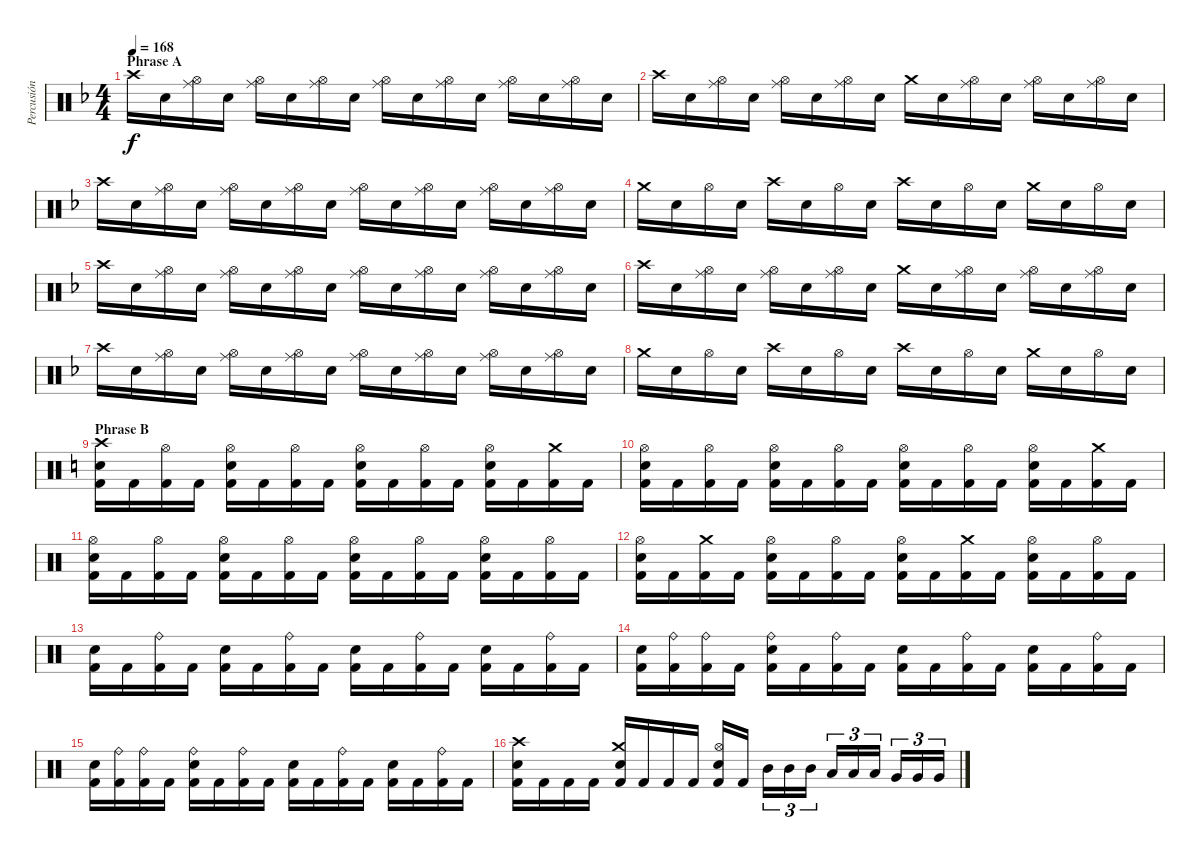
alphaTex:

\track ("Percusión" "Percusión") {instrument percussion}
\staff {score}
\articulation defaults
\ts (4 4)
\section ("" "Phrase A")
\tempo 168
\clef neutral
\ks f "Crash high (hit)".16{dy f} "Electric Snare (hit)".16
("Ride (middle)" "Hi-Hat (open)").16 "Electric Snare (hit)".16 ("Ride (middle)" "Hi-Hat (open)").16 "Electric Snare (hit)".16 ("Ride (middle)" "Hi-Hat (open)").16 "Electric Snare (hit)".16 ("Ride (middle)" "Hi-Hat (open)").16 "Electric Snare (hit)".16 ("Ride (middle)" "Hi-Hat (open)").16 "Electric Snare (hit)".16 ("Ride (middle)" "Hi-Hat (open)").16 "Electric Snare (hit)".16 ("Ride (middle)" "Hi-Hat (open)").16 "Electric Snare (hit)".16 |
"Crash high (hit)".16 "Electric Snare (hit)".16 ("Ride (middle)" "Hi-Hat (open)").16 "Electric Snare (hit)".16 ("Ride (middle)" "Hi-Hat (open)").16 "Electric Snare (hit)".16 ("Ride (middle)" "Hi-Hat (open)").16 "Electric Snare (hit)".16 "Crash medium (hit)".16 "Electric Snare (hit)".16 ("Ride (middle)" "Hi-Hat (open)").16 "Electric Snare (hit)".16 ("Ride (middle)" "Hi-Hat (open)").16 "Electric Snare (hit)".16 ("Ride (middle)" "Hi-Hat (open)").16 "Electric Snare (hit)".16 |
"Crash high (hit)".16 "Electric Snare (hit)".16 ("Ride (middle)" "Hi-Hat (open)").16 "Electric Snare (hit)".16 ("Ride (middle)" "Hi-Hat (open)").16 "Electric Snare (hit)".16 ("Ride (middle)" "Hi-Hat (open)").16 "Electric Snare (hit)".16 ("Ride (middle)" "Hi-Hat (open)").16 "Electric Snare (hit)".16 ("Ride (middle)" "Hi-Hat (open)").16 "Electric Snare (hit)".16 ("Ride (middle)" "Hi-Hat (open)").16 "Electric Snare (hit)".16 ("Ride (middle)" "Hi-Hat (open)").16 "Electric Snare (hit)".16 |
"Crash medium (hit)".16 "Electric Snare (hit)".16 "Hi-Hat (open)".16 "Electric Snare (hit)".16 "Crash high (hit)".16 "Electric Snare (hit)".16 "Hi-Hat (open)".16 "Electric Snare (hit)".16 "Crash high (hit)".16 "Electric Snare (hit)".16 "Hi-Hat (open)".16 "Electric Snare (hit)".16 "Crash medium (hit)".16 "Electric Snare (hit)".16 "Hi-Hat (open)".16 "Electric Snare (hit)".16 |
"Crash high (hit)".16 "Electric Snare (hit)".16 ("Ride (middle)" "Hi-Hat (open)").16 "Electric Snare (hit)".16 ("Ride (middle)" "Hi-Hat (open)").16 "Electric Snare (hit)".16 ("Ride (middle)" "Hi-Hat (open)").16 "Electric Snare (hit)".16 ("Ride (middle)" "Hi-Hat (open)").16 "Electric Snare (hit)".16 ("Ride (middle)" "Hi-Hat (open)").16 "Electric Snare (hit)".16 ("Ride (middle)" "Hi-Hat (open)").16 "Electric Snare (hit)".16 ("Ride (middle)" "Hi-Hat (open)").16 "Electric Snare (hit)".16 |
"Crash high (hit)".16 "Electric Snare (hit)".16 ("Ride (middle)" "Hi-Hat (open)").16 "Electric Snare (hit)".16 ("Ride (middle)" "Hi-Hat (open)").16 "Electric Snare (hit)".16 ("Ride (middle)" "Hi-Hat (open)").16 "Electric Snare (hit)".16 "Crash medium (hit)".16 "Electric Snare (hit)".16 ("Ride (middle)" "Hi-Hat (open)").16 "Electric Snare (hit)".16 ("Ride (middle)" "Hi-Hat (open)").16 "Electric Snare (hit)".16 ("Ride (middle)" "Hi-Hat (open)").16 "Electric Snare (hit)".16 |
"Crash high (hit)".16 "Electric Snare (hit)".16 ("Ride (middle)" "Hi-Hat (open)").16 "Electric Snare (hit)".16 ("Ride (middle)" "Hi-Hat (open)").16 "Electric Snare (hit)".16 ("Ride (middle)" "Hi-Hat (open)").16 "Electric Snare (hit)".16 ("Ride (middle)" "Hi-Hat (open)").16 "Electric Snare (hit)".16 ("Ride (middle)" "Hi-Hat (open)").16 "Electric Snare (hit)".16 ("Ride (middle)" "Hi-Hat (open)").16 "Electric Snare (hit)".16 ("Ride (middle)" "Hi-Hat (open)").16 "Electric Snare (hit)".16 |
"Crash medium (hit)".16 "Electric Snare (hit)".16 "Hi-Hat (open)".16 "Electric Snare (hit)".16 "Crash high (hit)".16 "Electric Snare (hit)".16 "Hi-Hat (open)".16 "Electric Snare (hit)".16 "Crash high (hit)".16 "Electric Snare (hit)".16 "Hi-Hat (open)".16 "Electric Snare (hit)".16 "Crash medium (hit)".16 "Electric Snare (hit)".16 "Hi-Hat (open)".16 "Electric Snare (hit)".16 |
\section ("" "Phrase B")
\ks c
("Electric Snare (hit)" "Crash high (hit)" "Kick (hit) 2").16 "Kick (hit) 2".16 ("Hi-Hat (open)" "Kick (hit) 2").16 "Kick (hit) 2".16 ("Electric Snare (hit)" "Hi-Hat (open)" "Kick (hit) 2").16 "Kick (hit) 2".16 ("Hi-Hat (open)" "Kick (hit) 2").16 "Kick (hit) 2".16 ("Electric Snare (hit)" "Hi-Hat (open)" "Kick (hit) 2").16 "Kick (hit) 2".16 ("Hi-Hat (open)" "Kick (hit) 2").16 "Kick (hit) 2".16 ("Electric Snare (hit)" "Hi-Hat (open)" "Kick (hit) 2").16 "Kick (hit) 2".16 ("Crash medium (hit)" "Kick (hit) 2").16 "Kick (hit) 2".16 |
("Electric Snare (hit)" "Hi-Hat (open)" "Kick (hit) 2").16 "Kick (hit) 2".16 ("Hi-Hat (open)" "Kick (hit) 2").16 "Kick (hit) 2".16 ("Electric Snare (hit)" "Hi-Hat (open)" "Kick (hit) 2").16 "Kick (hit) 2".16 ("Hi-Hat (open)" "Kick (hit) 2").16 "Kick (hit) 2".16 ("Electric Snare (hit)" "Hi-Hat (open)" "Kick (hit) 2").16 "Kick (hit) 2".16 ("Hi-Hat (open)" "Kick (hit) 2").16 "Kick (hit) 2".16 ("Electric Snare (hit)" "Hi-Hat (open)" "Kick (hit) 2").16 "Kick (hit) 2".16 ("Crash medium (hit)" "Kick (hit) 2").16 "Kick (hit) 2".16 |
("Electric Snare (hit)" "Hi-Hat (open)" "Kick (hit) 2").16 "Kick (hit) 2".16 ("Hi-Hat (open)" "Kick (hit) 2").16 "Kick (hit) 2".16 ("Electric Snare (hit)" "Hi-Hat (open)" "Kick (hit) 2").16 "Kick (hit) 2".16 ("Hi-Hat (open)" "Kick (hit) 2").16 "Kick (hit) 2".16 ("Electric Snare (hit)" "Hi-Hat (open)" "Kick (hit) 2").16 "Kick (hit) 2".16 ("Hi-Hat (open)" "Kick (hit) 2").16 "Kick (hit) 2".16 ("Electric Snare (hit)" "Hi-Hat (open)" "Kick (hit) 2").16 "Kick (hit) 2".16 ("Hi-Hat (open)" "Kick (hit) 2").16 "Kick (hit) 2".16 |
("Electric Snare (hit)" "Hi-Hat (open)" "Kick (hit) 2").16 "Kick (hit) 2".16 ("Crash medium (hit)" "Kick (hit) 2").16 "Kick (hit) 2".16 ("Electric Snare (hit)" "Hi-Hat (open)" "Kick (hit) 2").16 "Kick (hit) 2".16 ("Hi-Hat (open)" "Kick (hit) 2").16 "Kick (hit) 2".16 ("Electric Snare (hit)" "Hi-Hat (open)" "Kick (hit) 2").16 "Kick (hit) 2".16 ("Crash medium (hit)" "Kick (hit) 2").16 "Kick (hit) 2".16 ("Electric Snare (hit)" "Hi-Hat (open)" "Kick (hit) 2").16 "Kick (hit) 2".16 ("Hi-Hat (open)" "Kick (hit) 2").16 "Kick (hit) 2".16 |
("Electric Snare (hit)" "Kick (hit) 2").16 "Kick (hit) 2".16 ("Ride (bell)" "Kick (hit) 2").16 "Kick (hit) 2".16 ("Electric Snare (hit)" "Kick (hit) 2").16 "Kick (hit) 2".16 ("Ride (bell)" "Kick (hit) 2").16 "Kick (hit) 2".16 ("Electric Snare (hit)" "Kick (hit) 2").16 "Kick (hit) 2".16 ("Ride (bell)" "Kick (hit) 2").16 "Kick (hit) 2".16 ("Electric Snare (hit)" "Kick (hit) 2").16 "Kick (hit) 2".16 ("Ride (bell)" "Kick (hit) 2").16 "Kick (hit) 2".16 |
("Electric Snare (hit)" "Kick (hit) 2").16 ("Ride (bell)" "Kick (hit) 2").16 ("Ride (bell)" "Kick (hit) 2").16 "Kick (hit) 2".16 ("Electric Snare (hit)" "Ride (bell)" "Kick (hit) 2").16 "Kick (hit) 2".16 ("Ride (bell)" "Kick (hit) 2").16 "Kick (hit) 2".16 ("Electric Snare (hit)" "Kick (hit) 2").16 "Kick (hit) 2".16 ("Ride (bell)" "Kick (hit) 2").16 "Kick (hit) 2".16 ("Electric Snare (hit)" "Kick (hit) 2").16 "Kick (hit) 2".16 ("Ride (bell)" "Kick (hit) 2").16 "Kick (hit) 2".16 |
("Electric Snare (hit)" "Kick (hit) 2").16 ("Ride (bell)" "Kick (hit) 2").16 ("Ride (bell)" "Kick (hit) 2").16 "Kick (hit) 2".16 ("Electric Snare (hit)" "Ride (bell)" "Kick (hit) 2").16 "Kick (hit) 2".16 ("Ride (bell)" "Kick (hit) 2").16 "Kick (hit) 2".16 ("Electric Snare (hit)" "Kick (hit) 2").16 "Kick (hit) 2".16 ("Ride (bell)" "Kick (hit) 2").16 "Kick (hit) 2".16 ("Electric Snare (hit)" "Kick (hit) 2").16 "Kick (hit) 2".16 ("Ride (bell)" "Kick (hit) 2").16 "Kick (hit) 2".16 |
("Electric Snare (hit)" "Crash high (hit)" "Kick (hit) 2").16 "Kick (hit) 2".16 "Kick (hit) 2".16 "Kick (hit) 2".16 ("Electric Snare (hit)" "Crash medium (hit)" "Kick (hit) 2").16 "Kick (hit) 2".16 "Kick (hit) 2".16 "Kick (hit) 2".16 ("Electric Snare (hit)" "Hi-Hat (open)" "Kick (hit) 2").16 "Kick (hit) 2".16 "Mid Tom (hit)".16{tu (3 2)} "Mid Tom (hit)".16{tu (3 2)} "Mid Tom (hit)".16{tu (3 2)} "Low Tom (hit)".16{tu (3 2)} "Low Tom (hit)".16{tu (3 2)} "Low Tom (hit)".16{tu (3 2)} "Very Low Tom (hit)".16{tu (3 2)} "Very Low Tom (hit)".16{tu (3 2)} "Very Low Tom (hit)".16{tu (3 2)}
